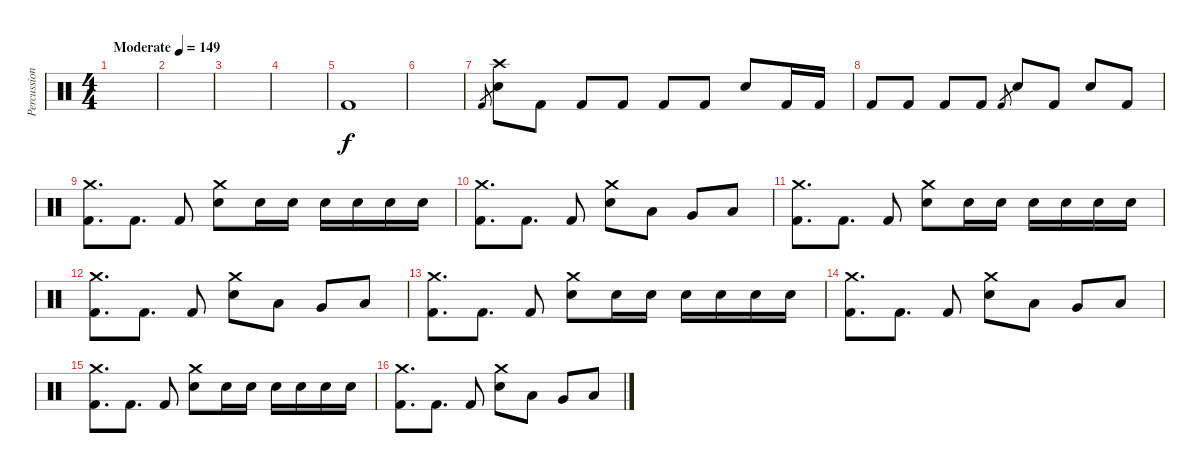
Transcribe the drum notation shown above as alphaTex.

\track ("Percussions" "Percussion") {instrument percussion}
\staff {score}
\articulation defaults
\ts (4 4)
\tempo (149 "Moderate")
\clef neutral
\ks c
|
|
|
|
"Kick (hit) 2".1 |
|
"Kick (hit) 2".8{gr} ("Crash high (hit)" "Electric Snare (hit)").8 "Kick (hit) 2".8 "Kick (hit) 2".8 "Kick (hit) 2".8 "Kick (hit) 2".8 "Kick (hit) 2".8 "Electric Snare (hit)".8 "Kick (hit) 2".16 "Kick (hit) 2".16 |
"Kick (hit) 2".8 "Kick (hit) 2".8 "Kick (hit) 2".8 "Kick (hit) 2".8 "Kick (hit) 2".8{gr} "Electric Snare (hit)".8 "Kick (hit) 2".8 "Electric Snare (hit)".8 "Kick (hit) 2".8 |
("Crash medium (hit)" "Kick (hit) 2").8{d} "Kick (hit) 2".8{d} "Kick (hit) 2".8 ("Crash medium (hit)" "Electric Snare (hit)").8 "Electric Snare (hit)".16 "Electric Snare (hit)".16 "Electric Snare (hit)".16 "Electric Snare (hit)".16 "Electric Snare (hit)".16 "Electric Snare (hit)".16 |
("Crash medium (hit)" "Kick (hit) 2").8{d} "Kick (hit) 2".8{d} "Kick (hit) 2".8 ("Crash medium (hit)" "Electric Snare (hit)").8 "Low Tom (hit)".8 "Very Low Tom (hit)".8 "Low Floor Tom (hit)".8 |
("Crash medium (hit)" "Kick (hit) 2").8{d} "Kick (hit) 2".8{d} "Kick (hit) 2".8 ("Crash medium (hit)" "Electric Snare (hit)").8 "Electric Snare (hit)".16 "Electric Snare (hit)".16 "Electric Snare (hit)".16 "Electric Snare (hit)".16 "Electric Snare (hit)".16 "Electric Snare (hit)".16 |
("Crash medium (hit)" "Kick (hit) 2").8{d} "Kick (hit) 2".8{d} "Kick (hit) 2".8 ("Crash medium (hit)" "Electric Snare (hit)").8 "Low Tom (hit)".8 "Very Low Tom (hit)".8 "Low Floor Tom (hit)".8 |
("Crash medium (hit)" "Kick (hit) 2").8{d} "Kick (hit) 2".8{d} "Kick (hit) 2".8 ("Crash medium (hit)" "Electric Snare (hit)").8 "Electric Snare (hit)".16 "Electric Snare (hit)".16 "Electric Snare (hit)".16 "Electric Snare (hit)".16 "Electric Snare (hit)".16 "Electric Snare (hit)".16 |
("Crash medium (hit)" "Kick (hit) 2").8{d} "Kick (hit) 2".8{d} "Kick (hit) 2".8 ("Crash medium (hit)" "Electric Snare (hit)").8 "Low Tom (hit)".8 "Very Low Tom (hit)".8 "Low Floor Tom (hit)".8 |
("Crash medium (hit)" "Kick (hit) 2").8{d} "Kick (hit) 2".8{d} "Kick (hit) 2".8 ("Crash medium (hit)" "Electric Snare (hit)").8 "Electric Snare (hit)".16 "Electric Snare (hit)".16 "Electric Snare (hit)".16 "Electric Snare (hit)".16 "Electric Snare (hit)".16 "Electric Snare (hit)".16 |
("Crash medium (hit)" "Kick (hit) 2").8{d} "Kick (hit) 2".8{d} "Kick (hit) 2".8 ("Crash medium (hit)" "Electric Snare (hit)").8 "Low Tom (hit)".8 "Very Low Tom (hit)".8 "Low Floor Tom (hit)".8
